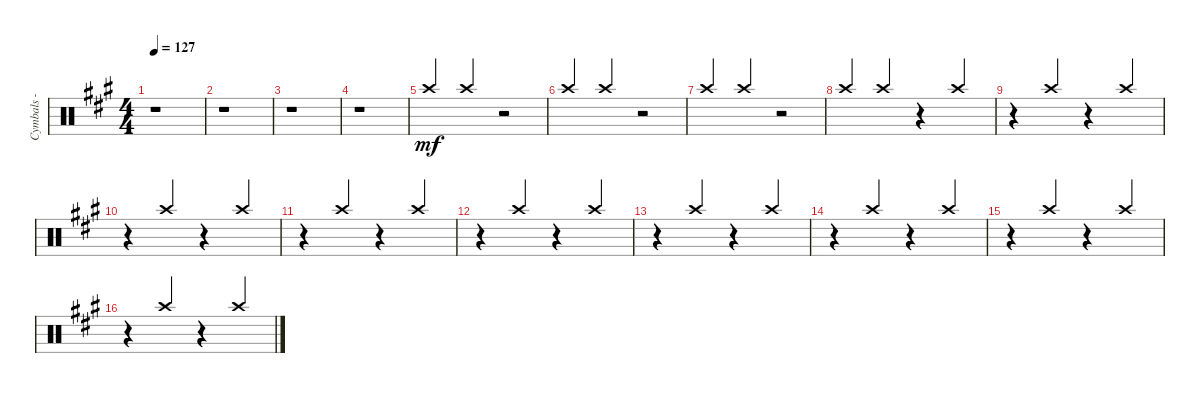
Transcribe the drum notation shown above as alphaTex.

\track ("Cymbals - crash" "Cymbals - ") {instrument percussion}
\staff {score}
\articulation defaults
\ts (4 4)
\tempo 127
\clef neutral
\ks a
r.1{dy mf} |
r.1 |
r.1 |
r.1 |
"Crash high (hit)".4{beam Up} "Crash high (hit)".4{beam Up} r.2 |
"Crash high (hit)".4{beam Up} "Crash high (hit)".4{beam Up} r.2 |
"Crash high (hit)".4{beam Up} "Crash high (hit)".4{beam Up} r.2 |
"Crash high (hit)".4{beam Up} "Crash high (hit)".4{beam Up} r.4 "Crash high (hit)".4{beam Up} |
r.4 "Crash high (hit)".4{beam Up} r.4 "Crash high (hit)".4{beam Up} |
r.4 "Crash high (hit)".4{beam Up} r.4 "Crash high (hit)".4{beam Up} |
r.4 "Crash high (hit)".4{beam Up} r.4 "Crash high (hit)".4{beam Up} |
r.4 "Crash high (hit)".4{beam Up} r.4 "Crash high (hit)".4{beam Up} |
r.4 "Crash high (hit)".4{beam Up} r.4 "Crash high (hit)".4{beam Up} |
r.4 "Crash high (hit)".4{beam Up} r.4 "Crash high (hit)".4{beam Up} |
r.4 "Crash high (hit)".4{beam Up} r.4 "Crash high (hit)".4{beam Up} |
r.4 "Crash high (hit)".4{beam Up} r.4 "Crash high (hit)".4{beam Up}
